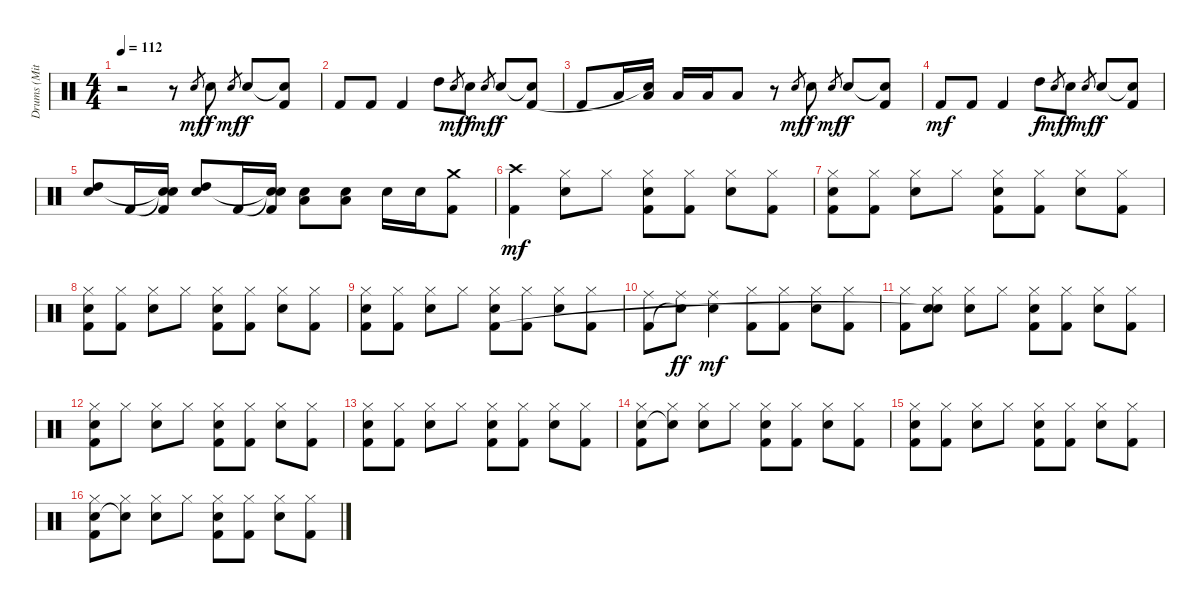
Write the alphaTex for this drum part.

\track ("Drums (Mitch Mitchell)" "Drums (Mit") {instrument percussion}
\staff {score}
\articulation defaults
\ts (4 4)
\tempo 112
\clef neutral
\ks c
r.2{dy mf} r.8 "Electric Snare (hit)".8{gr} "Electric Snare (hit)".8{dy f} "Electric Snare (hit)".8{gr dy mf} "Electric Snare (hit)".8{dy f} ("Snare (hit)"{t} "Kick (hit) 2").8 |
"Kick (hit) 2".8 "Kick (hit) 2".8 "Kick (hit) 2".4 "High Tom (hit)".8 "Electric Snare (hit)".8{gr dy mf} "Electric Snare (hit)".8{dy f} "Electric Snare (hit)".8{gr dy mf} "Electric Snare (hit)".8{dy f} ("Snare (hit)"{t} "Kick (hit) 2").8 |
"Kick (hit) 2".8 "Low Tom (hit)".16 ("Low Tom (hit)" "Snare (hit)"{t}).16 "Low Tom (hit)".16 "Low Tom (hit)".16 "Low Tom (hit)".8 r.8 "Electric Snare (hit)".8{gr dy mf} "Electric Snare (hit)".8{dy f} "Electric Snare (hit)".8{gr dy mf} "Electric Snare (hit)".8{dy f} ("Snare (hit)"{t} "Kick (hit) 2").8 |
"Kick (hit) 2".8{dy mf} "Kick (hit) 2".8 "Kick (hit) 2".4 "High Tom (hit)".8{dy f} "Electric Snare (hit)".8{gr dy mf} "Electric Snare (hit)".8{dy f} "Electric Snare (hit)".8{gr dy mf} "Electric Snare (hit)".8{dy f} ("Snare (hit)"{t} "Kick (hit) 2").8 |
("High Tom (hit)" "Electric Snare (hit)").8 "Kick (hit) 2".16 ("Snare (hit)"{t} "Snare (hit)"{t} "Kick (hit) 2").16 ("High Tom (hit)" "Electric Snare (hit)").8 "Kick (hit) 2".16 ("Snare (hit)"{t} "Snare (hit)"{t} "Kick (hit) 2").16 ("Low Tom (hit)" "Electric Snare (hit)").8 ("Low Tom (hit)" "Electric Snare (hit)").8 "Electric Snare (hit)".16 "Electric Snare (hit)".16 ("Crash medium (hit)" "Kick (hit) 2").8 |
("Crash high (hit)" "Kick (hit) 2").4{dy mf} ("Hi-Hat (closed)" "Electric Snare (hit)").8 "Hi-Hat (closed)".8 ("Hi-Hat (closed)" "Electric Snare (hit)" "Kick (hit) 2").8 ("Hi-Hat (closed)" "Kick (hit) 2").8 ("Hi-Hat (closed)" "Electric Snare (hit)").8 ("Hi-Hat (closed)" "Kick (hit) 2").8 |
("Hi-Hat (closed)" "Electric Snare (hit)" "Kick (hit) 2").8 ("Hi-Hat (closed)" "Kick (hit) 2").8 ("Hi-Hat (closed)" "Electric Snare (hit)").8 "Hi-Hat (closed)".8 ("Hi-Hat (closed)" "Electric Snare (hit)" "Kick (hit) 2").8 ("Hi-Hat (closed)" "Kick (hit) 2").8 ("Hi-Hat (closed)" "Electric Snare (hit)").8 ("Hi-Hat (closed)" "Kick (hit) 2").8 |
("Hi-Hat (closed)" "Electric Snare (hit)" "Kick (hit) 2").8 ("Hi-Hat (closed)" "Kick (hit) 2").8 ("Hi-Hat (closed)" "Electric Snare (hit)").8 "Hi-Hat (closed)".8 ("Hi-Hat (closed)" "Electric Snare (hit)" "Kick (hit) 2").8 ("Hi-Hat (closed)" "Kick (hit) 2").8 ("Hi-Hat (closed)" "Electric Snare (hit)").8 ("Hi-Hat (closed)" "Kick (hit) 2").8 |
("Hi-Hat (closed)" "Electric Snare (hit)" "Kick (hit) 2").8 ("Hi-Hat (closed)" "Kick (hit) 2").8 ("Hi-Hat (closed)" "Electric Snare (hit)").8 "Hi-Hat (closed)".8 ("Hi-Hat (closed)" "Electric Snare (hit)" "Kick (hit) 2").8 ("Hi-Hat (closed)" "Kick (hit) 2").8 ("Hi-Hat (closed)" "Electric Snare (hit)").8 ("Hi-Hat (closed)" "Kick (hit) 2").8 |
("Ride (middle)" "Kick (hit) 2").8 ("Ride (middle)" "Snare (hit)"{t}).8{dy ff} ("Ride (middle)" "Electric Snare (hit)").4{dy mf} ("Hi-Hat (closed)" "Kick (hit) 2").8 ("Hi-Hat (closed)" "Kick (hit) 2").8 ("Hi-Hat (closed)" "Electric Snare (hit)").8 ("Hi-Hat (closed)" "Kick (hit) 2").8 |
("Hi-Hat (closed)" "Kick (hit) 2").8 ("Hi-Hat (closed)" "Electric Snare (hit)" "Snare (hit)"{t}).8 ("Hi-Hat (closed)" "Electric Snare (hit)").8 "Hi-Hat (closed)".8 ("Hi-Hat (closed)" "Electric Snare (hit)" "Kick (hit) 2").8 ("Hi-Hat (closed)" "Kick (hit) 2").8 ("Hi-Hat (closed)" "Electric Snare (hit)").8 ("Hi-Hat (closed)" "Kick (hit) 2").8 |
("Hi-Hat (closed)" "Electric Snare (hit)" "Kick (hit) 2").8 "Hi-Hat (closed)".8 ("Hi-Hat (closed)" "Electric Snare (hit)").8 "Hi-Hat (closed)".8 ("Hi-Hat (closed)" "Electric Snare (hit)" "Kick (hit) 2").8 ("Hi-Hat (closed)" "Kick (hit) 2").8 ("Hi-Hat (closed)" "Electric Snare (hit)").8 ("Hi-Hat (closed)" "Kick (hit) 2").8 |
("Hi-Hat (closed)" "Electric Snare (hit)" "Kick (hit) 2").8 ("Hi-Hat (closed)" "Kick (hit) 2").8 ("Hi-Hat (closed)" "Electric Snare (hit)").8 "Hi-Hat (closed)".8 ("Hi-Hat (closed)" "Electric Snare (hit)" "Kick (hit) 2").8 ("Hi-Hat (closed)" "Kick (hit) 2").8 ("Hi-Hat (closed)" "Electric Snare (hit)").8 ("Hi-Hat (closed)" "Kick (hit) 2").8 |
("Hi-Hat (closed)" "Electric Snare (hit)" "Kick (hit) 2").8 ("Hi-Hat (closed)" "Snare (hit)"{t}).8 ("Hi-Hat (closed)" "Electric Snare (hit)").8 "Hi-Hat (closed)".8 ("Hi-Hat (closed)" "Electric Snare (hit)" "Kick (hit) 2").8 ("Hi-Hat (closed)" "Kick (hit) 2").8 ("Hi-Hat (closed)" "Electric Snare (hit)").8 ("Hi-Hat (closed)" "Kick (hit) 2").8 |
("Hi-Hat (closed)" "Electric Snare (hit)" "Kick (hit) 2").8 ("Hi-Hat (closed)" "Kick (hit) 2").8 ("Hi-Hat (closed)" "Electric Snare (hit)").8 "Hi-Hat (closed)".8 ("Hi-Hat (closed)" "Electric Snare (hit)" "Kick (hit) 2").8 ("Hi-Hat (closed)" "Kick (hit) 2").8 ("Hi-Hat (closed)" "Electric Snare (hit)").8 ("Hi-Hat (closed)" "Kick (hit) 2").8 |
("Hi-Hat (closed)" "Electric Snare (hit)" "Kick (hit) 2").8 ("Hi-Hat (closed)" "Snare (hit)"{t}).8 ("Hi-Hat (closed)" "Electric Snare (hit)").8 "Hi-Hat (closed)".8 ("Hi-Hat (closed)" "Electric Snare (hit)" "Kick (hit) 2").8 ("Hi-Hat (closed)" "Kick (hit) 2").8 ("Hi-Hat (closed)" "Electric Snare (hit)").8 ("Hi-Hat (closed)" "Kick (hit) 2").8
